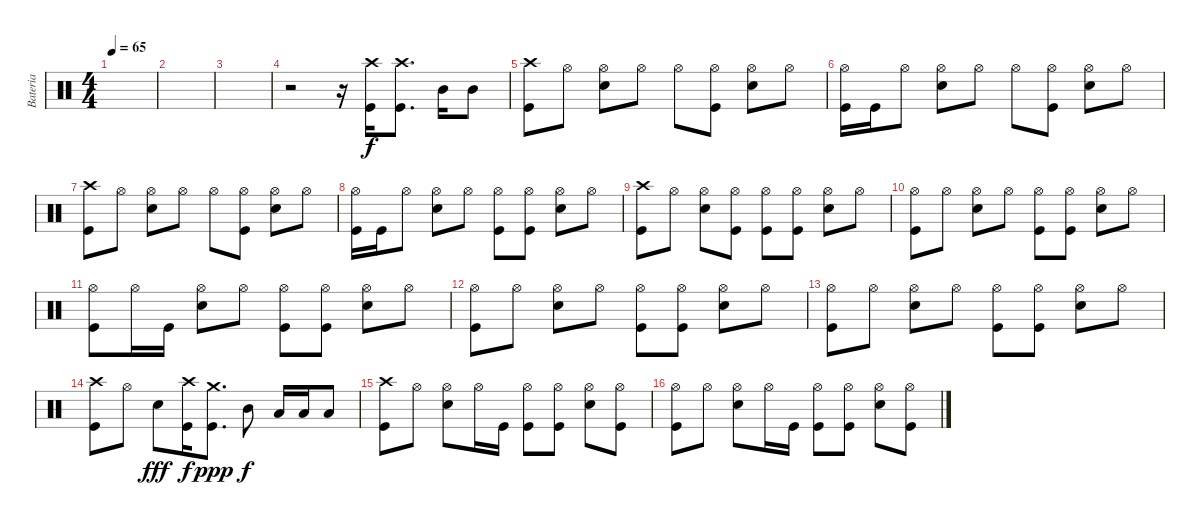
\track ("Bateria" "Bateria") {instrument percussion}
\staff {score}
\articulation defaults
\ts (4 4)
\tempo 65
\clef neutral
\ks c
|
|
|
r.2 r.16 ("Kick (hit)" "Crash high (hit)").16 ("Kick (hit)" "Crash high (hit)").8{d} "Mid Tom (hit)".16 "Mid Tom (hit)".8 |
("Kick (hit)" "Crash high (hit)").8 "Hi-Hat (open)".8 ("Snare (hit) 2" "Hi-Hat (open)").8 "Hi-Hat (open)".8 "Hi-Hat (open)".8 ("Hi-Hat (open)" "Kick (hit)").8 ("Hi-Hat (open)" "Snare (hit) 2").8 "Hi-Hat (open)".8 |
("Kick (hit)" "Hi-Hat (open)").16 "Kick (hit)".16 "Hi-Hat (open)".8 ("Hi-Hat (open)" "Snare (hit) 2").8 "Hi-Hat (open)".8 "Hi-Hat (open)".8 ("Hi-Hat (open)" "Kick (hit)").8 ("Hi-Hat (open)" "Snare (hit) 2").8 "Hi-Hat (open)".8 |
("Kick (hit)" "Crash high (hit)").8 "Hi-Hat (open)".8 ("Hi-Hat (open)" "Snare (hit) 2").8 "Hi-Hat (open)".8 "Hi-Hat (open)".8 ("Hi-Hat (open)" "Kick (hit)").8 ("Hi-Hat (open)" "Snare (hit) 2").8 "Hi-Hat (open)".8 |
("Kick (hit)" "Hi-Hat (open)").16 "Kick (hit)".16 "Hi-Hat (open)".8 ("Hi-Hat (open)" "Snare (hit) 2").8 "Hi-Hat (open)".8 ("Hi-Hat (open)" "Kick (hit)").8 ("Hi-Hat (open)" "Kick (hit)").8 ("Hi-Hat (open)" "Snare (hit) 2").8 "Hi-Hat (open)".8 |
("Crash high (hit)" "Kick (hit)").8 "Hi-Hat (open)".8 ("Hi-Hat (open)" "Snare (hit) 2").8 ("Hi-Hat (open)" "Kick (hit)").8 ("Hi-Hat (open)" "Kick (hit)").8 ("Hi-Hat (open)" "Kick (hit)").8 ("Hi-Hat (open)" "Snare (hit) 2").8 "Hi-Hat (open)".8 |
("Hi-Hat (open)" "Kick (hit)").8 "Hi-Hat (open)".8 ("Hi-Hat (open)" "Snare (hit) 2").8 "Hi-Hat (open)".8 ("Hi-Hat (open)" "Kick (hit)").8 ("Hi-Hat (open)" "Kick (hit)").8 ("Hi-Hat (open)" "Snare (hit) 2").8 "Hi-Hat (open)".8 |
("Hi-Hat (open)" "Kick (hit)").8 "Hi-Hat (open)".16 "Kick (hit)".16 ("Hi-Hat (open)" "Snare (hit) 2").8 "Hi-Hat (open)".8 ("Hi-Hat (open)" "Kick (hit)").8 ("Hi-Hat (open)" "Kick (hit)").8 ("Hi-Hat (open)" "Snare (hit) 2").8 "Hi-Hat (open)".8 |
("Hi-Hat (open)" "Kick (hit)").8 "Hi-Hat (open)".8 ("Hi-Hat (open)" "Snare (hit) 2").8 "Hi-Hat (open)".8 ("Hi-Hat (open)" "Kick (hit)").8 ("Hi-Hat (open)" "Kick (hit)").8 ("Hi-Hat (open)" "Snare (hit) 2").8 "Hi-Hat (open)".8 |
("Hi-Hat (open)" "Kick (hit)").8 "Hi-Hat (open)".8 ("Hi-Hat (open)" "Snare (hit) 2").8 "Hi-Hat (open)".8 ("Hi-Hat (open)" "Kick (hit)").8 ("Hi-Hat (open)" "Kick (hit)").8 ("Hi-Hat (open)" "Snare (hit) 2").8 "Hi-Hat (open)".8 |
("Crash high (hit)" "Kick (hit)").8 "Hi-Hat (open)".8 "Snare (hit) 2".8{dy fff} ("Kick (hit)" "Crash high (hit)").16{dy f} ("Crash medium (hit)" "Kick (hit)").8{d dy ppp} "Mid Tom (hit)".8{dy f} "Low Tom (hit)".16 "Low Tom (hit)".16 "Low Tom (hit)".8 |
("Kick (hit)" "Crash high (hit)").8 "Hi-Hat (open)".8 ("Hi-Hat (open)" "Snare (hit) 2").8 "Hi-Hat (open)".16 "Kick (hit)".16 ("Hi-Hat (open)" "Kick (hit)").8 ("Hi-Hat (open)" "Kick (hit)").8 ("Hi-Hat (open)" "Snare (hit) 2").8 ("Hi-Hat (open)" "Kick (hit)").8 |
("Kick (hit)" "Hi-Hat (open)").8 "Hi-Hat (open)".8 ("Hi-Hat (open)" "Snare (hit) 2").8 "Hi-Hat (open)".16 "Kick (hit)".16 ("Hi-Hat (open)" "Kick (hit)").8 ("Hi-Hat (open)" "Kick (hit)").8 ("Hi-Hat (open)" "Snare (hit) 2").8 ("Hi-Hat (open)" "Kick (hit)").8
